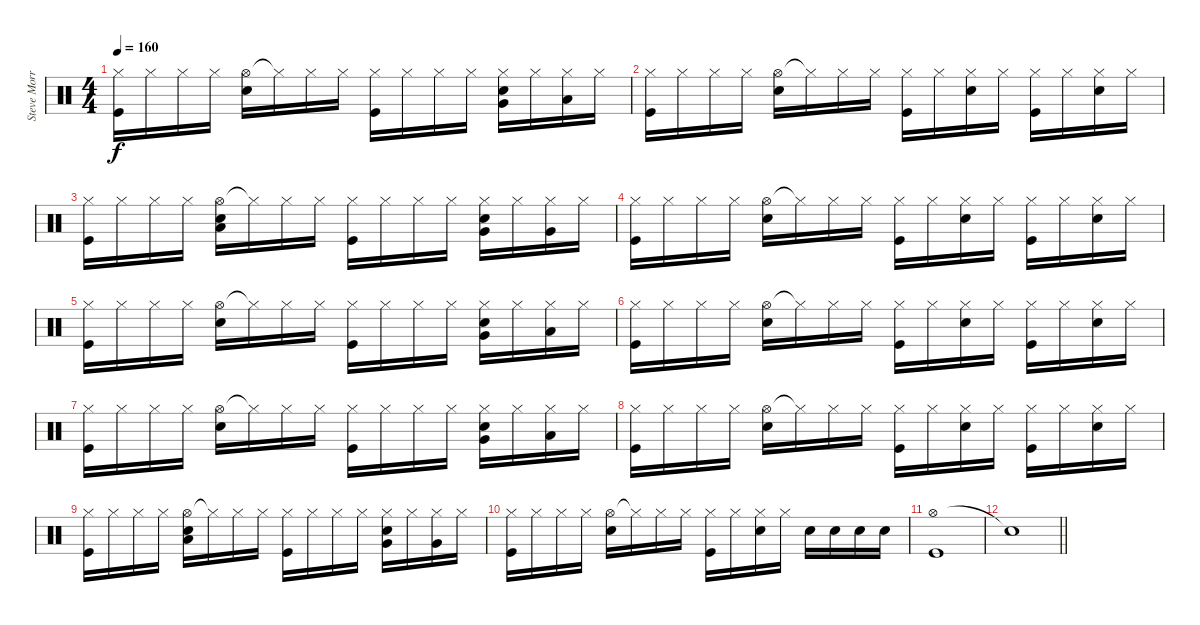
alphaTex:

\track ("Steve Morris" "Steve Morr") {instrument percussion}
\staff {score}
\articulation defaults
\ts (4 4)
\tempo 160
\clef neutral
\ks c
("Hi-Hat (closed)" "Kick (hit)").16{dy f} "Hi-Hat (closed)".16 "Hi-Hat (closed)".16 "Hi-Hat (closed)".16 ("Hi-Hat (open)" "Electric Snare (hit)").16 "Hi-Hat (closed)"{t}.16 "Hi-Hat (closed)".16 "Hi-Hat (closed)".16 ("Hi-Hat (closed)" "Kick (hit)").16 "Hi-Hat (closed)".16 "Hi-Hat (closed)".16 "Hi-Hat (closed)".16 ("Hi-Hat (closed)" "Very Low Tom (hit)" "Electric Snare (hit)").16 "Hi-Hat (closed)".16 ("Hi-Hat (closed)" "Low Tom (hit)").16 "Hi-Hat (closed)".16 |
("Hi-Hat (closed)" "Kick (hit)").16 "Hi-Hat (closed)".16 "Hi-Hat (closed)".16 "Hi-Hat (closed)".16 ("Hi-Hat (open)" "Electric Snare (hit)").16 "Hi-Hat (closed)"{t}.16 "Hi-Hat (closed)".16 "Hi-Hat (closed)".16 ("Hi-Hat (closed)" "Kick (hit)").16 "Hi-Hat (closed)".16 ("Hi-Hat (closed)" "Electric Snare (hit)").16 "Hi-Hat (closed)".16 ("Hi-Hat (closed)" "Kick (hit)").16 "Hi-Hat (closed)".16 ("Hi-Hat (closed)" "Electric Snare (hit)").16 "Hi-Hat (closed)".16 |
("Hi-Hat (closed)" "Kick (hit)").16 "Hi-Hat (closed)".16 "Hi-Hat (closed)".16 "Hi-Hat (closed)".16 ("Hi-Hat (open)" "Low Tom (hit)" "Electric Snare (hit)").16 "Hi-Hat (closed)"{t}.16 "Hi-Hat (closed)".16 "Hi-Hat (closed)".16 ("Hi-Hat (closed)" "Kick (hit)").16 "Hi-Hat (closed)".16 "Hi-Hat (closed)".16 "Hi-Hat (closed)".16 ("Hi-Hat (closed)" "Very Low Tom (hit)" "Electric Snare (hit)").16 "Hi-Hat (closed)".16 ("Hi-Hat (closed)" "Very Low Tom (hit)").16 "Hi-Hat (closed)".16 |
("Hi-Hat (closed)" "Kick (hit)").16 "Hi-Hat (closed)".16 "Hi-Hat (closed)".16 "Hi-Hat (closed)".16 ("Hi-Hat (open)" "Electric Snare (hit)").16 "Hi-Hat (closed)"{t}.16 "Hi-Hat (closed)".16 "Hi-Hat (closed)".16 ("Hi-Hat (closed)" "Kick (hit)").16 "Hi-Hat (closed)".16 ("Hi-Hat (closed)" "Electric Snare (hit)").16 "Hi-Hat (closed)".16 ("Hi-Hat (closed)" "Kick (hit)").16 "Hi-Hat (closed)".16 ("Hi-Hat (closed)" "Electric Snare (hit)").16 "Hi-Hat (closed)".16 |
("Hi-Hat (closed)" "Kick (hit)").16 "Hi-Hat (closed)".16 "Hi-Hat (closed)".16 "Hi-Hat (closed)".16 ("Hi-Hat (open)" "Electric Snare (hit)").16 "Hi-Hat (closed)"{t}.16 "Hi-Hat (closed)".16 "Hi-Hat (closed)".16 ("Hi-Hat (closed)" "Kick (hit)").16 "Hi-Hat (closed)".16 "Hi-Hat (closed)".16 "Hi-Hat (closed)".16 ("Hi-Hat (closed)" "Very Low Tom (hit)" "Electric Snare (hit)").16 "Hi-Hat (closed)".16 ("Hi-Hat (closed)" "Low Tom (hit)").16 "Hi-Hat (closed)".16 |
("Hi-Hat (closed)" "Kick (hit)").16 "Hi-Hat (closed)".16 "Hi-Hat (closed)".16 "Hi-Hat (closed)".16 ("Hi-Hat (open)" "Electric Snare (hit)").16 "Hi-Hat (closed)"{t}.16 "Hi-Hat (closed)".16 "Hi-Hat (closed)".16 ("Hi-Hat (closed)" "Kick (hit)").16 "Hi-Hat (closed)".16 ("Hi-Hat (closed)" "Electric Snare (hit)").16 "Hi-Hat (closed)".16 ("Hi-Hat (closed)" "Kick (hit)").16 "Hi-Hat (closed)".16 ("Hi-Hat (closed)" "Electric Snare (hit)").16 "Hi-Hat (closed)".16 |
("Hi-Hat (closed)" "Kick (hit)").16 "Hi-Hat (closed)".16 "Hi-Hat (closed)".16 "Hi-Hat (closed)".16 ("Hi-Hat (open)" "Electric Snare (hit)").16 "Hi-Hat (closed)"{t}.16 "Hi-Hat (closed)".16 "Hi-Hat (closed)".16 ("Hi-Hat (closed)" "Kick (hit)").16 "Hi-Hat (closed)".16 "Hi-Hat (closed)".16 "Hi-Hat (closed)".16 ("Hi-Hat (closed)" "Very Low Tom (hit)" "Electric Snare (hit)").16 "Hi-Hat (closed)".16 ("Hi-Hat (closed)" "Low Tom (hit)").16 "Hi-Hat (closed)".16 |
("Hi-Hat (closed)" "Kick (hit)").16 "Hi-Hat (closed)".16 "Hi-Hat (closed)".16 "Hi-Hat (closed)".16 ("Hi-Hat (open)" "Electric Snare (hit)").16 "Hi-Hat (closed)"{t}.16 "Hi-Hat (closed)".16 "Hi-Hat (closed)".16 ("Hi-Hat (closed)" "Kick (hit)").16 "Hi-Hat (closed)".16 ("Hi-Hat (closed)" "Electric Snare (hit)").16 "Hi-Hat (closed)".16 ("Hi-Hat (closed)" "Kick (hit)").16 "Hi-Hat (closed)".16 ("Hi-Hat (closed)" "Electric Snare (hit)").16 "Hi-Hat (closed)".16 |
("Hi-Hat (closed)" "Kick (hit)").16 "Hi-Hat (closed)".16 "Hi-Hat (closed)".16 "Hi-Hat (closed)".16 ("Hi-Hat (open)" "Low Tom (hit)" "Electric Snare (hit)").16 "Hi-Hat (closed)"{t}.16 "Hi-Hat (closed)".16 "Hi-Hat (closed)".16 ("Hi-Hat (closed)" "Kick (hit)").16 "Hi-Hat (closed)".16 "Hi-Hat (closed)".16 "Hi-Hat (closed)".16 ("Hi-Hat (closed)" "Very Low Tom (hit)" "Electric Snare (hit)").16 "Hi-Hat (closed)".16 ("Hi-Hat (closed)" "Very Low Tom (hit)").16 "Hi-Hat (closed)".16 |
("Hi-Hat (closed)" "Kick (hit)").16 "Hi-Hat (closed)".16 "Hi-Hat (closed)".16 "Hi-Hat (closed)".16 ("Hi-Hat (open)" "Electric Snare (hit)").16 "Hi-Hat (closed)"{t}.16 "Hi-Hat (closed)".16 "Hi-Hat (closed)".16 ("Hi-Hat (closed)" "Kick (hit)").16 "Hi-Hat (closed)".16 ("Hi-Hat (closed)" "Electric Snare (hit)").16 "Hi-Hat (closed)".16 "Electric Snare (hit)".16 "Electric Snare (hit)".16 "Electric Snare (hit)".16 "Electric Snare (hit)".16 |
("Hi-Hat (open)" "Kick (hit)").1 |
\barLineRight lightlight "Snare (hit)"{t}.1
